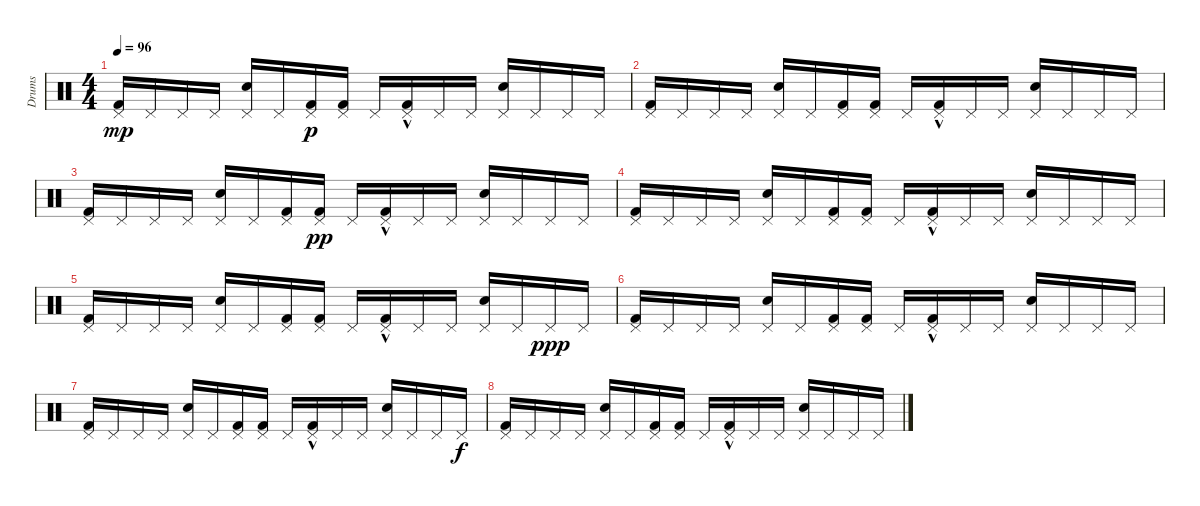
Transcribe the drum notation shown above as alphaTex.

\track ("Drums" "Drums") {instrument percussion}
\staff {score}
\articulation defaults
\ts (4 4)
\tempo 96
\clef neutral
\ks c
("Pedal Hi-Hat (hit)" "Kick (hit) 2").16{dy mp} "Pedal Hi-Hat (hit)".16 "Pedal Hi-Hat (hit)".16 "Pedal Hi-Hat (hit)".16 ("Electric Snare (hit)" "Pedal Hi-Hat (hit)").16 "Pedal Hi-Hat (hit)".16 ("Pedal Hi-Hat (hit)" "Kick (hit) 2").16{dy p} ("Pedal Hi-Hat (hit)" "Kick (hit) 2").16 "Pedal Hi-Hat (hit)".16 ("Pedal Hi-Hat (hit)" "Kick (hit) 2"{hac}).16 "Pedal Hi-Hat (hit)".16 "Pedal Hi-Hat (hit)".16 ("Electric Snare (hit)" "Pedal Hi-Hat (hit)").16 "Pedal Hi-Hat (hit)".16 "Pedal Hi-Hat (hit)".16 "Pedal Hi-Hat (hit)".16 |
("Pedal Hi-Hat (hit)" "Kick (hit) 2").16 "Pedal Hi-Hat (hit)".16 "Pedal Hi-Hat (hit)".16 "Pedal Hi-Hat (hit)".16 ("Electric Snare (hit)" "Pedal Hi-Hat (hit)").16 "Pedal Hi-Hat (hit)".16 ("Pedal Hi-Hat (hit)" "Kick (hit) 2").16 ("Pedal Hi-Hat (hit)" "Kick (hit) 2").16 "Pedal Hi-Hat (hit)".16 ("Pedal Hi-Hat (hit)" "Kick (hit) 2"{hac}).16 "Pedal Hi-Hat (hit)".16 "Pedal Hi-Hat (hit)".16 ("Electric Snare (hit)" "Pedal Hi-Hat (hit)").16 "Pedal Hi-Hat (hit)".16 "Pedal Hi-Hat (hit)".16 "Pedal Hi-Hat (hit)".16 |
("Pedal Hi-Hat (hit)" "Kick (hit) 2").16 "Pedal Hi-Hat (hit)".16 "Pedal Hi-Hat (hit)".16 "Pedal Hi-Hat (hit)".16 ("Electric Snare (hit)" "Pedal Hi-Hat (hit)").16 "Pedal Hi-Hat (hit)".16 ("Pedal Hi-Hat (hit)" "Kick (hit) 2").16 ("Pedal Hi-Hat (hit)" "Kick (hit) 2").16{dy pp} "Pedal Hi-Hat (hit)".16 ("Pedal Hi-Hat (hit)" "Kick (hit) 2"{hac}).16 "Pedal Hi-Hat (hit)".16 "Pedal Hi-Hat (hit)".16 ("Electric Snare (hit)" "Pedal Hi-Hat (hit)").16 "Pedal Hi-Hat (hit)".16 "Pedal Hi-Hat (hit)".16 "Pedal Hi-Hat (hit)".16 |
("Pedal Hi-Hat (hit)" "Kick (hit) 2").16 "Pedal Hi-Hat (hit)".16 "Pedal Hi-Hat (hit)".16 "Pedal Hi-Hat (hit)".16 ("Electric Snare (hit)" "Pedal Hi-Hat (hit)").16 "Pedal Hi-Hat (hit)".16 ("Pedal Hi-Hat (hit)" "Kick (hit) 2").16 ("Pedal Hi-Hat (hit)" "Kick (hit) 2").16 "Pedal Hi-Hat (hit)".16 ("Pedal Hi-Hat (hit)" "Kick (hit) 2"{hac}).16 "Pedal Hi-Hat (hit)".16 "Pedal Hi-Hat (hit)".16 ("Electric Snare (hit)" "Pedal Hi-Hat (hit)").16 "Pedal Hi-Hat (hit)".16 "Pedal Hi-Hat (hit)".16 "Pedal Hi-Hat (hit)".16 |
("Pedal Hi-Hat (hit)" "Kick (hit) 2").16 "Pedal Hi-Hat (hit)".16 "Pedal Hi-Hat (hit)".16 "Pedal Hi-Hat (hit)".16 ("Electric Snare (hit)" "Pedal Hi-Hat (hit)").16 "Pedal Hi-Hat (hit)".16 ("Pedal Hi-Hat (hit)" "Kick (hit) 2").16 ("Pedal Hi-Hat (hit)" "Kick (hit) 2").16 "Pedal Hi-Hat (hit)".16 ("Pedal Hi-Hat (hit)" "Kick (hit) 2"{hac}).16 "Pedal Hi-Hat (hit)".16 "Pedal Hi-Hat (hit)".16 ("Electric Snare (hit)" "Pedal Hi-Hat (hit)").16 "Pedal Hi-Hat (hit)".16 "Pedal Hi-Hat (hit)".16{dy ppp} "Pedal Hi-Hat (hit)".16 |
("Pedal Hi-Hat (hit)" "Kick (hit) 2").16 "Pedal Hi-Hat (hit)".16 "Pedal Hi-Hat (hit)".16 "Pedal Hi-Hat (hit)".16 ("Electric Snare (hit)" "Pedal Hi-Hat (hit)").16 "Pedal Hi-Hat (hit)".16 ("Pedal Hi-Hat (hit)" "Kick (hit) 2").16 ("Pedal Hi-Hat (hit)" "Kick (hit) 2").16 "Pedal Hi-Hat (hit)".16 ("Pedal Hi-Hat (hit)" "Kick (hit) 2"{hac}).16 "Pedal Hi-Hat (hit)".16 "Pedal Hi-Hat (hit)".16 ("Electric Snare (hit)" "Pedal Hi-Hat (hit)").16 "Pedal Hi-Hat (hit)".16 "Pedal Hi-Hat (hit)".16 "Pedal Hi-Hat (hit)".16 |
("Pedal Hi-Hat (hit)" "Kick (hit) 2").16 "Pedal Hi-Hat (hit)".16 "Pedal Hi-Hat (hit)".16 "Pedal Hi-Hat (hit)".16 ("Electric Snare (hit)" "Pedal Hi-Hat (hit)").16 "Pedal Hi-Hat (hit)".16 ("Pedal Hi-Hat (hit)" "Kick (hit) 2").16 ("Pedal Hi-Hat (hit)" "Kick (hit) 2").16 "Pedal Hi-Hat (hit)".16 ("Pedal Hi-Hat (hit)" "Kick (hit) 2"{hac}).16 "Pedal Hi-Hat (hit)".16 "Pedal Hi-Hat (hit)".16 ("Electric Snare (hit)" "Pedal Hi-Hat (hit)").16 "Pedal Hi-Hat (hit)".16 "Pedal Hi-Hat (hit)".16 "Pedal Hi-Hat (hit)".16{dy f} |
("Pedal Hi-Hat (hit)" "Kick (hit) 2").16 "Pedal Hi-Hat (hit)".16 "Pedal Hi-Hat (hit)".16 "Pedal Hi-Hat (hit)".16 ("Electric Snare (hit)" "Pedal Hi-Hat (hit)").16 "Pedal Hi-Hat (hit)".16 ("Pedal Hi-Hat (hit)" "Kick (hit) 2").16 ("Pedal Hi-Hat (hit)" "Kick (hit) 2").16 "Pedal Hi-Hat (hit)".16 ("Pedal Hi-Hat (hit)" "Kick (hit) 2"{hac}).16 "Pedal Hi-Hat (hit)".16 "Pedal Hi-Hat (hit)".16 ("Electric Snare (hit)" "Pedal Hi-Hat (hit)").16 "Pedal Hi-Hat (hit)".16 "Pedal Hi-Hat (hit)".16 "Pedal Hi-Hat (hit)".16
